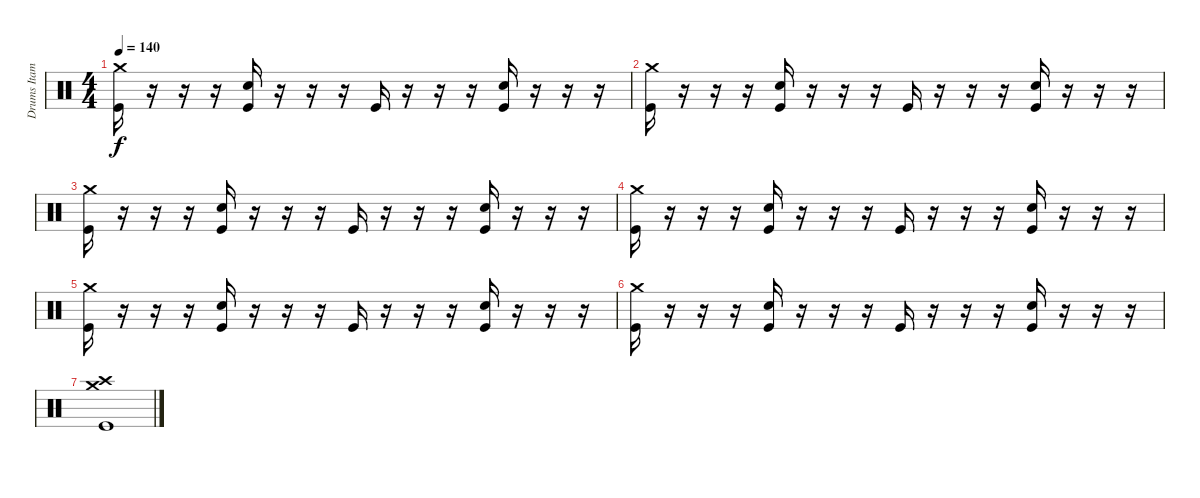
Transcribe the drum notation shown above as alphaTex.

\track ("Drums Itamar" "Drums Itam") {instrument percussion}
\staff {score}
\articulation defaults
\ts (4 4)
\tempo 140
\clef neutral
\ks c
("Kick (hit)" "Crash medium (hit)").16{dy f} r.16 r.16 r.16 ("Kick (hit)" "Snare (hit) 2").16 r.16 r.16 r.16 "Kick (hit)".16 r.16 r.16 r.16 ("Kick (hit)" "Snare (hit) 2").16 r.16 r.16 r.16 |
("Kick (hit)" "Crash medium (hit)").16 r.16 r.16 r.16 ("Kick (hit)" "Snare (hit) 2").16 r.16 r.16 r.16 "Kick (hit)".16 r.16 r.16 r.16 ("Kick (hit)" "Snare (hit) 2").16 r.16 r.16 r.16 |
("Kick (hit)" "Crash medium (hit)").16 r.16 r.16 r.16 ("Kick (hit)" "Snare (hit) 2").16 r.16 r.16 r.16 "Kick (hit)".16 r.16 r.16 r.16 ("Kick (hit)" "Snare (hit) 2").16 r.16 r.16 r.16 |
("Kick (hit)" "Crash medium (hit)").16 r.16 r.16 r.16 ("Kick (hit)" "Snare (hit) 2").16 r.16 r.16 r.16 "Kick (hit)".16 r.16 r.16 r.16 ("Kick (hit)" "Snare (hit) 2").16 r.16 r.16 r.16 |
("Kick (hit)" "Crash medium (hit)").16 r.16 r.16 r.16 ("Kick (hit)" "Snare (hit) 2").16 r.16 r.16 r.16 "Kick (hit)".16 r.16 r.16 r.16 ("Kick (hit)" "Snare (hit) 2").16 r.16 r.16 r.16 |
("Kick (hit)" "Crash medium (hit)").16 r.16 r.16 r.16 ("Kick (hit)" "Snare (hit) 2").16 r.16 r.16 r.16 "Kick (hit)".16 r.16 r.16 r.16 ("Kick (hit)" "Snare (hit) 2").16 r.16 r.16 r.16 |
("Crash medium (hit)" "Crash high (hit)" "Kick (hit)").1
